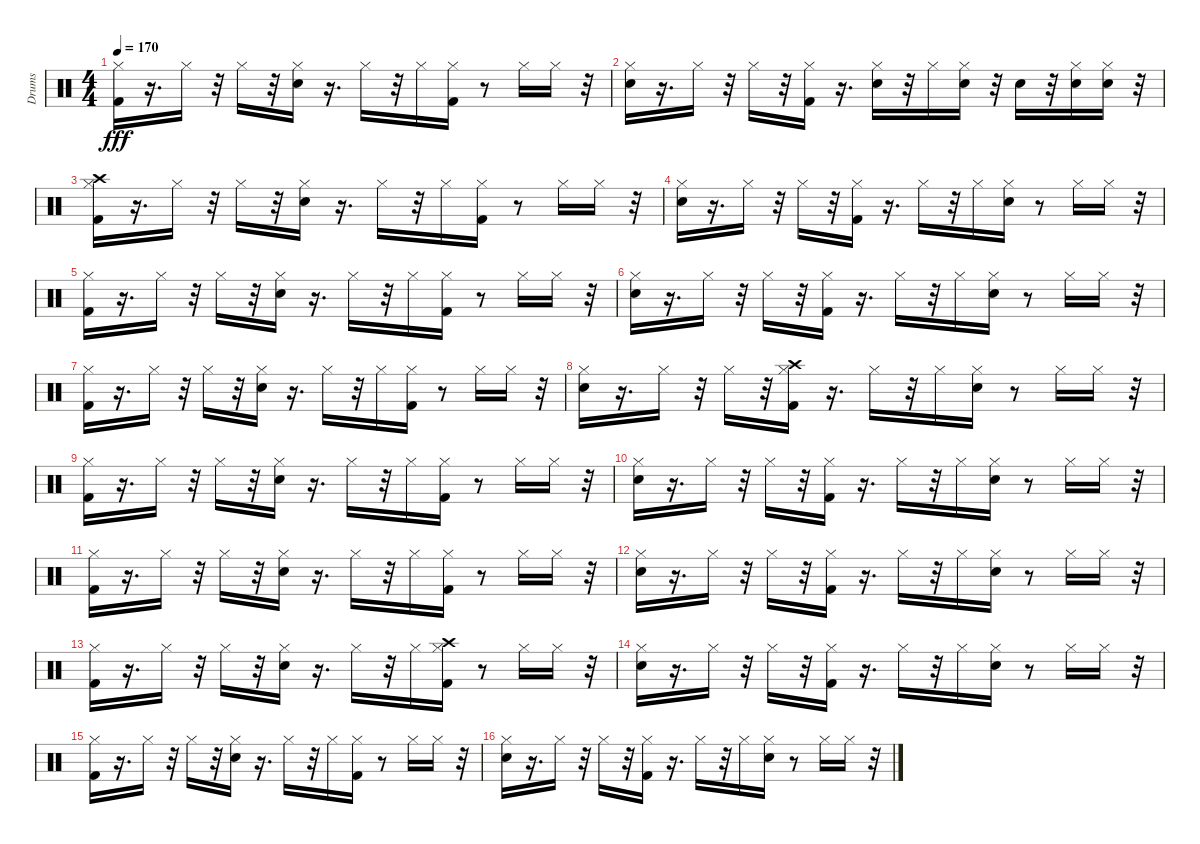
\track ("Drums" "Drums") {instrument percussion}
\staff {score}
\articulation defaults
\ts (4 4)
\tempo 170
\clef neutral
\ks c
("Kick (hit) 2" "Hi-Hat (closed)").16{dy fff} r.16{d} "Hi-Hat (closed)".16 r.32 "Hi-Hat (closed)".16 r.32 ("Snare (hit) 2" "Hi-Hat (closed)").16 r.16{d} "Hi-Hat (closed)".16 r.32 "Hi-Hat (closed)".16 ("Kick (hit) 2" "Hi-Hat (closed)").16 r.8 "Hi-Hat (closed)".16 "Hi-Hat (closed)".16 r.32 |
("Snare (hit) 2" "Hi-Hat (closed)").16 r.16{d} "Hi-Hat (closed)".16 r.32 "Hi-Hat (closed)".16 r.32 ("Kick (hit) 2" "Hi-Hat (closed)").16 r.16{d} ("Hi-Hat (closed)" "Snare (hit) 2").16 r.32 "Hi-Hat (closed)".16 ("Snare (hit) 2" "Hi-Hat (closed)").16 r.32 "Snare (hit) 2".16 r.32 ("Hi-Hat (closed)" "Snare (hit) 2").16 ("Hi-Hat (closed)" "Snare (hit) 2").16 r.32 |
("Kick (hit) 2" "Hi-Hat (closed)" "Crash high (hit)").16 r.16{d} "Hi-Hat (closed)".16 r.32 "Hi-Hat (closed)".16 r.32 ("Snare (hit) 2" "Hi-Hat (closed)").16 r.16{d} "Hi-Hat (closed)".16 r.32 "Hi-Hat (closed)".16 ("Kick (hit) 2" "Hi-Hat (closed)").16 r.8 "Hi-Hat (closed)".16 "Hi-Hat (closed)".16 r.32 |
("Snare (hit) 2" "Hi-Hat (closed)").16 r.16{d} "Hi-Hat (closed)".16 r.32 "Hi-Hat (closed)".16 r.32 ("Kick (hit) 2" "Hi-Hat (closed)").16 r.16{d} "Hi-Hat (closed)".16 r.32 "Hi-Hat (closed)".16 ("Snare (hit) 2" "Hi-Hat (closed)").16 r.8 "Hi-Hat (closed)".16 "Hi-Hat (closed)".16 r.32 |
("Kick (hit) 2" "Hi-Hat (closed)").16 r.16{d} "Hi-Hat (closed)".16 r.32 "Hi-Hat (closed)".16 r.32 ("Snare (hit) 2" "Hi-Hat (closed)").16 r.16{d} "Hi-Hat (closed)".16 r.32 "Hi-Hat (closed)".16 ("Kick (hit) 2" "Hi-Hat (closed)").16 r.8 "Hi-Hat (closed)".16 "Hi-Hat (closed)".16 r.32 |
("Snare (hit) 2" "Hi-Hat (closed)").16 r.16{d} "Hi-Hat (closed)".16 r.32 "Hi-Hat (closed)".16 r.32 ("Kick (hit) 2" "Hi-Hat (closed)").16 r.16{d} "Hi-Hat (closed)".16 r.32 "Hi-Hat (closed)".16 ("Snare (hit) 2" "Hi-Hat (closed)").16 r.8 "Hi-Hat (closed)".16 "Hi-Hat (closed)".16 r.32 |
("Kick (hit) 2" "Hi-Hat (closed)").16 r.16{d} "Hi-Hat (closed)".16 r.32 "Hi-Hat (closed)".16 r.32 ("Snare (hit) 2" "Hi-Hat (closed)").16 r.16{d} "Hi-Hat (closed)".16 r.32 "Hi-Hat (closed)".16 ("Kick (hit) 2" "Hi-Hat (closed)").16 r.8 "Hi-Hat (closed)".16 "Hi-Hat (closed)".16 r.32 |
("Snare (hit) 2" "Hi-Hat (closed)").16 r.16{d} "Hi-Hat (closed)".16 r.32 "Hi-Hat (closed)".16 r.32 ("Kick (hit) 2" "Hi-Hat (closed)" "Crash high (hit)").16 r.16{d} "Hi-Hat (closed)".16 r.32 "Hi-Hat (closed)".16 ("Snare (hit) 2" "Hi-Hat (closed)").16 r.8 "Hi-Hat (closed)".16 "Hi-Hat (closed)".16 r.32 |
("Kick (hit) 2" "Hi-Hat (closed)").16 r.16{d} "Hi-Hat (closed)".16 r.32 "Hi-Hat (closed)".16 r.32 ("Snare (hit) 2" "Hi-Hat (closed)").16 r.16{d} "Hi-Hat (closed)".16 r.32 "Hi-Hat (closed)".16 ("Kick (hit) 2" "Hi-Hat (closed)").16 r.8 "Hi-Hat (closed)".16 "Hi-Hat (closed)".16 r.32 |
("Snare (hit) 2" "Hi-Hat (closed)").16 r.16{d} "Hi-Hat (closed)".16 r.32 "Hi-Hat (closed)".16 r.32 ("Kick (hit) 2" "Hi-Hat (closed)").16 r.16{d} "Hi-Hat (closed)".16 r.32 "Hi-Hat (closed)".16 ("Snare (hit) 2" "Hi-Hat (closed)").16 r.8 "Hi-Hat (closed)".16 "Hi-Hat (closed)".16 r.32 |
("Kick (hit) 2" "Hi-Hat (closed)").16 r.16{d} "Hi-Hat (closed)".16 r.32 "Hi-Hat (closed)".16 r.32 ("Snare (hit) 2" "Hi-Hat (closed)").16 r.16{d} "Hi-Hat (closed)".16 r.32 "Hi-Hat (closed)".16 ("Kick (hit) 2" "Hi-Hat (closed)").16 r.8 "Hi-Hat (closed)".16 "Hi-Hat (closed)".16 r.32 |
("Snare (hit) 2" "Hi-Hat (closed)").16 r.16{d} "Hi-Hat (closed)".16 r.32 "Hi-Hat (closed)".16 r.32 ("Kick (hit) 2" "Hi-Hat (closed)").16 r.16{d} "Hi-Hat (closed)".16 r.32 "Hi-Hat (closed)".16 ("Snare (hit) 2" "Hi-Hat (closed)").16 r.8 "Hi-Hat (closed)".16 "Hi-Hat (closed)".16 r.32 |
("Kick (hit) 2" "Hi-Hat (closed)").16 r.16{d} "Hi-Hat (closed)".16 r.32 "Hi-Hat (closed)".16 r.32 ("Snare (hit) 2" "Hi-Hat (closed)").16 r.16{d} "Hi-Hat (closed)".16 r.32 "Hi-Hat (closed)".16 ("Kick (hit) 2" "Hi-Hat (closed)" "Crash high (hit)").16 r.8 "Hi-Hat (closed)".16 "Hi-Hat (closed)".16 r.32 |
("Snare (hit) 2" "Hi-Hat (closed)").16 r.16{d} "Hi-Hat (closed)".16 r.32 "Hi-Hat (closed)".16 r.32 ("Kick (hit) 2" "Hi-Hat (closed)").16 r.16{d} "Hi-Hat (closed)".16 r.32 "Hi-Hat (closed)".16 ("Snare (hit) 2" "Hi-Hat (closed)").16 r.8 "Hi-Hat (closed)".16 "Hi-Hat (closed)".16 r.32 |
("Kick (hit) 2" "Hi-Hat (closed)").16 r.16{d} "Hi-Hat (closed)".16 r.32 "Hi-Hat (closed)".16 r.32 ("Snare (hit) 2" "Hi-Hat (closed)").16 r.16{d} "Hi-Hat (closed)".16 r.32 "Hi-Hat (closed)".16 ("Kick (hit) 2" "Hi-Hat (closed)").16 r.8 "Hi-Hat (closed)".16 "Hi-Hat (closed)".16 r.32 |
("Snare (hit) 2" "Hi-Hat (closed)").16 r.16{d} "Hi-Hat (closed)".16 r.32 "Hi-Hat (closed)".16 r.32 ("Kick (hit) 2" "Hi-Hat (closed)").16 r.16{d} "Hi-Hat (closed)".16 r.32 "Hi-Hat (closed)".16 ("Snare (hit) 2" "Hi-Hat (closed)").16 r.8 "Hi-Hat (closed)".16 "Hi-Hat (closed)".16 r.32
